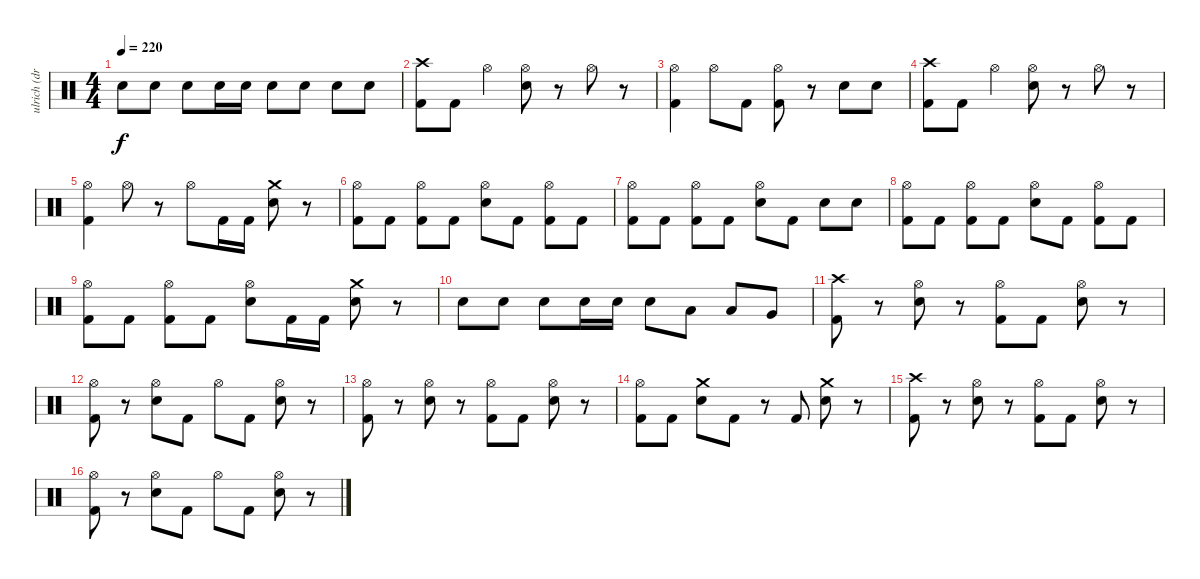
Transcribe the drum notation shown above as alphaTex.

\track ("ulrich (drums)" "ulrich (dr") {instrument percussion}
\staff {score}
\articulation defaults
\ts (4 4)
\tempo 220
\clef neutral
\ks c "Snare (hit) 2".8{dy f} "Snare (hit) 2".8 "Snare (hit) 2".8 "Snare (hit) 2".16 "Snare (hit) 2".16 "Snare (hit) 2".8 "Snare (hit) 2".8 "Snare (hit) 2".8 "Snare (hit) 2".8
|
("Crash high (hit)" "Kick (hit) 2").8 "Kick (hit) 2".8 "Hi-Hat (open)".4 ("Hi-Hat (open)" "Snare (hit) 2").8 r.8 "Hi-Hat (open)".8 r.8 |
("Hi-Hat (open)" "Kick (hit) 2").4 "Hi-Hat (open)".8 "Kick (hit) 2".8 ("Hi-Hat (open)" "Kick (hit) 2").8 r.8 "Snare (hit) 2".8 "Snare (hit) 2".8 |
("Crash high (hit)" "Kick (hit) 2").8 "Kick (hit) 2".8 "Hi-Hat (open)".4 ("Hi-Hat (open)" "Snare (hit) 2").8 r.8 "Hi-Hat (open)".8 r.8 |
("Hi-Hat (open)" "Kick (hit) 2").4 "Hi-Hat (open)".8 r.8 "Hi-Hat (open)".8 "Kick (hit) 2".16 "Kick (hit) 2".16 ("Crash medium (hit)" "Snare (hit) 2").8 r.8 |
("Hi-Hat (open)" "Kick (hit) 2").8 "Kick (hit) 2".8 ("Hi-Hat (open)" "Kick (hit) 2").8 "Kick (hit) 2".8 ("Hi-Hat (open)" "Snare (hit) 2").8 "Kick (hit) 2".8 ("Hi-Hat (open)" "Kick (hit) 2").8 "Kick (hit) 2".8 |
("Hi-Hat (open)" "Kick (hit) 2").8 "Kick (hit) 2".8 ("Hi-Hat (open)" "Kick (hit) 2").8 "Kick (hit) 2".8 ("Hi-Hat (open)" "Snare (hit) 2").8 "Kick (hit) 2".8 "Snare (hit) 2".8 "Snare (hit) 2".8 |
("Hi-Hat (open)" "Kick (hit) 2").8 "Kick (hit) 2".8 ("Hi-Hat (open)" "Kick (hit) 2").8 "Kick (hit) 2".8 ("Hi-Hat (open)" "Snare (hit) 2").8 "Kick (hit) 2".8 ("Hi-Hat (open)" "Kick (hit) 2").8 "Kick (hit) 2".8 |
("Hi-Hat (open)" "Kick (hit) 2").8 "Kick (hit) 2".8 ("Hi-Hat (open)" "Kick (hit) 2").8 "Kick (hit) 2".8 ("Hi-Hat (open)" "Snare (hit) 2").8 "Kick (hit) 2".16 "Kick (hit) 2".16 ("Crash medium (hit)" "Snare (hit) 2").8 r.8 |
"Snare (hit) 2".8 "Snare (hit) 2".8 "Snare (hit) 2".8 "Snare (hit) 2".16 "Snare (hit) 2".16 "Snare (hit) 2".8 "Low Tom (hit)".8 "Low Tom (hit)".8 "Very Low Tom (hit)".8 |
("Crash high (hit)" "Kick (hit) 2").8 r.8 ("Hi-Hat (open)" "Snare (hit) 2").8 r.8 ("Hi-Hat (open)" "Kick (hit) 2").8 "Kick (hit) 2".8 ("Hi-Hat (open)" "Snare (hit) 2").8 r.8 |
("Hi-Hat (open)" "Kick (hit) 2").8 r.8 ("Hi-Hat (open)" "Snare (hit) 2").8 "Kick (hit) 2".8 "Hi-Hat (open)".8 "Kick (hit) 2".8 ("Hi-Hat (open)" "Snare (hit) 2").8 r.8 |
("Hi-Hat (open)" "Kick (hit) 2").8 r.8 ("Hi-Hat (open)" "Snare (hit) 2").8 r.8 ("Hi-Hat (open)" "Kick (hit) 2").8 "Kick (hit) 2".8 ("Hi-Hat (open)" "Snare (hit) 2").8 r.8 |
("Hi-Hat (open)" "Kick (hit) 2").8 "Kick (hit) 2".8 ("Crash medium (hit)" "Snare (hit) 2").8 "Kick (hit) 2".8 r.8 "Kick (hit) 2".8 ("Crash medium (hit)" "Snare (hit) 2").8 r.8 |
("Crash high (hit)" "Kick (hit) 2").8 r.8 ("Hi-Hat (open)" "Snare (hit) 2").8 r.8 ("Hi-Hat (open)" "Kick (hit) 2").8 "Kick (hit) 2".8 ("Hi-Hat (open)" "Snare (hit) 2").8 r.8 |
("Hi-Hat (open)" "Kick (hit) 2").8 r.8 ("Hi-Hat (open)" "Snare (hit) 2").8 "Kick (hit) 2".8 "Hi-Hat (open)".8 "Kick (hit) 2".8 ("Hi-Hat (open)" "Snare (hit) 2").8 r.8
